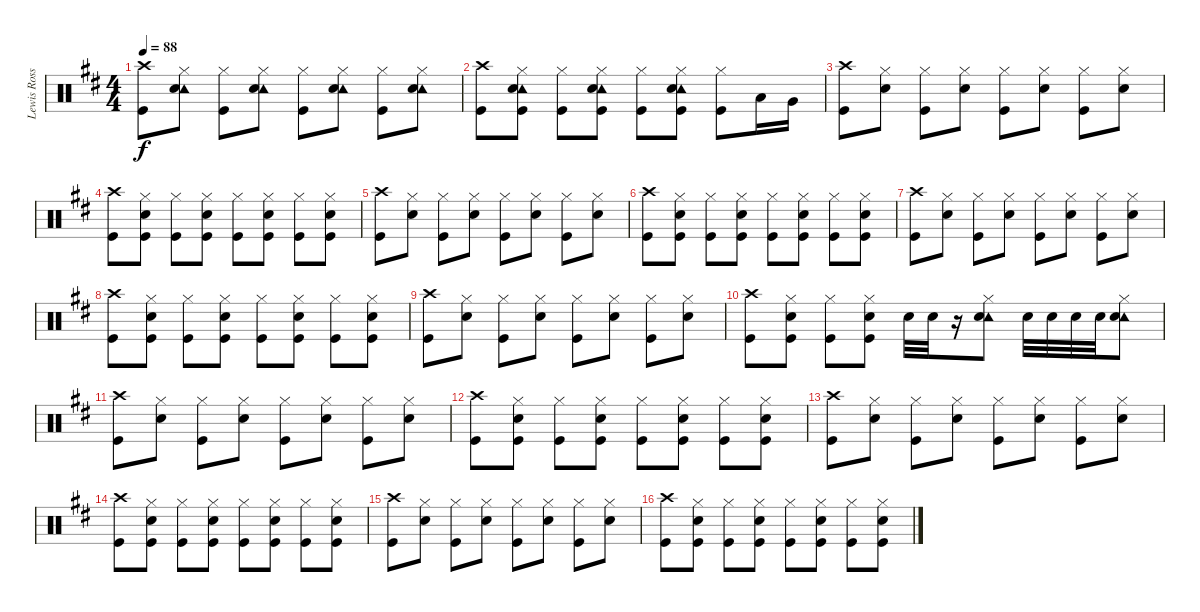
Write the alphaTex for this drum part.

\track ("Lewis Ross Drums" "Lewis Ross") {instrument percussion}
\staff {score}
\articulation defaults
\ts (4 4)
\tempo 88
\clef neutral
\ks d
("Crash high (hit)" "Kick (hit)").8{dy f} ("Hi-Hat (closed)" "Tambourine (hit)" "Snare (hit) 2").8 ("Hi-Hat (closed)" "Kick (hit)").8 ("Hi-Hat (closed)" "Tambourine (hit)" "Snare (hit) 2").8 ("Hi-Hat (closed)" "Kick (hit)").8 ("Hi-Hat (closed)" "Tambourine (hit)" "Snare (hit) 2").8 ("Hi-Hat (closed)" "Kick (hit)").8 ("Hi-Hat (closed)" "Tambourine (hit)" "Snare (hit) 2").8 |
("Crash high (hit)" "Kick (hit)").8 ("Hi-Hat (closed)" "Tambourine (hit)" "Snare (hit) 2" "Kick (hit)").8 ("Hi-Hat (closed)" "Kick (hit)").8 ("Hi-Hat (closed)" "Tambourine (hit)" "Snare (hit) 2" "Kick (hit)").8 ("Hi-Hat (closed)" "Kick (hit)").8 ("Hi-Hat (closed)" "Tambourine (hit)" "Snare (hit) 2" "Kick (hit)").8 ("Hi-Hat (closed)" "Kick (hit)").8 "Low Tom (hit)".16 "Very Low Tom (hit)".16 |
("Crash high (hit)" "Kick (hit)").8 ("Hi-Hat (closed)" "Snare (hit) 2").8 ("Hi-Hat (closed)" "Kick (hit)").8 ("Hi-Hat (closed)" "Snare (hit) 2").8 ("Hi-Hat (closed)" "Kick (hit)").8 ("Hi-Hat (closed)" "Snare (hit) 2").8 ("Hi-Hat (closed)" "Kick (hit)").8 ("Hi-Hat (closed)" "Snare (hit) 2").8 |
("Crash high (hit)" "Kick (hit)").8 ("Hi-Hat (closed)" "Snare (hit) 2" "Kick (hit)").8 ("Hi-Hat (closed)" "Kick (hit)").8 ("Hi-Hat (closed)" "Snare (hit) 2" "Kick (hit)").8 ("Hi-Hat (closed)" "Kick (hit)").8 ("Hi-Hat (closed)" "Snare (hit) 2" "Kick (hit)").8 ("Hi-Hat (closed)" "Kick (hit)").8 ("Hi-Hat (closed)" "Snare (hit) 2" "Kick (hit)").8 |
("Crash high (hit)" "Kick (hit)").8 ("Hi-Hat (closed)" "Snare (hit) 2").8 ("Hi-Hat (closed)" "Kick (hit)").8 ("Hi-Hat (closed)" "Snare (hit) 2").8 ("Hi-Hat (closed)" "Kick (hit)").8 ("Hi-Hat (closed)" "Snare (hit) 2").8 ("Hi-Hat (closed)" "Kick (hit)").8 ("Hi-Hat (closed)" "Snare (hit) 2").8 |
("Crash high (hit)" "Kick (hit)").8 ("Hi-Hat (closed)" "Snare (hit) 2" "Kick (hit)").8 ("Hi-Hat (closed)" "Kick (hit)").8 ("Hi-Hat (closed)" "Snare (hit) 2" "Kick (hit)").8 ("Hi-Hat (closed)" "Kick (hit)").8 ("Hi-Hat (closed)" "Snare (hit) 2" "Kick (hit)").8 ("Hi-Hat (closed)" "Kick (hit)").8 ("Hi-Hat (closed)" "Snare (hit) 2" "Kick (hit)").8 |
("Crash high (hit)" "Kick (hit)").8 ("Hi-Hat (closed)" "Snare (hit) 2").8 ("Hi-Hat (closed)" "Kick (hit)").8 ("Hi-Hat (closed)" "Snare (hit) 2").8 ("Hi-Hat (closed)" "Kick (hit)").8 ("Hi-Hat (closed)" "Snare (hit) 2").8 ("Hi-Hat (closed)" "Kick (hit)").8 ("Hi-Hat (closed)" "Snare (hit) 2").8 |
("Crash high (hit)" "Kick (hit)").8 ("Hi-Hat (closed)" "Snare (hit) 2" "Kick (hit)").8 ("Hi-Hat (closed)" "Kick (hit)").8 ("Hi-Hat (closed)" "Snare (hit) 2" "Kick (hit)").8 ("Hi-Hat (closed)" "Kick (hit)").8 ("Hi-Hat (closed)" "Snare (hit) 2" "Kick (hit)").8 ("Hi-Hat (closed)" "Kick (hit)").8 ("Hi-Hat (closed)" "Snare (hit) 2" "Kick (hit)").8 |
("Crash high (hit)" "Kick (hit)").8 ("Hi-Hat (closed)" "Snare (hit) 2").8 ("Hi-Hat (closed)" "Kick (hit)").8 ("Hi-Hat (closed)" "Snare (hit) 2").8 ("Hi-Hat (closed)" "Kick (hit)").8 ("Hi-Hat (closed)" "Snare (hit) 2").8 ("Hi-Hat (closed)" "Kick (hit)").8 ("Hi-Hat (closed)" "Snare (hit) 2").8 |
("Crash high (hit)" "Kick (hit)").8 ("Hi-Hat (closed)" "Snare (hit) 2" "Kick (hit)").8 ("Hi-Hat (closed)" "Kick (hit)").8 ("Hi-Hat (closed)" "Snare (hit) 2" "Kick (hit)").8 "Snare (hit) 2".32 "Snare (hit) 2".32 r.16 ("Hi-Hat (closed)" "Tambourine (hit)" "Snare (hit) 2").8 "Snare (hit) 2".32 "Snare (hit) 2".32 "Snare (hit) 2".32 "Snare (hit) 2".32 ("Hi-Hat (closed)" "Tambourine (hit)" "Snare (hit) 2").8 |
("Crash high (hit)" "Kick (hit)").8 ("Hi-Hat (closed)" "Snare (hit) 2").8 ("Hi-Hat (closed)" "Kick (hit)").8 ("Hi-Hat (closed)" "Snare (hit) 2").8 ("Hi-Hat (closed)" "Kick (hit)").8 ("Hi-Hat (closed)" "Snare (hit) 2").8 ("Hi-Hat (closed)" "Kick (hit)").8 ("Hi-Hat (closed)" "Snare (hit) 2").8 |
("Crash high (hit)" "Kick (hit)").8 ("Hi-Hat (closed)" "Snare (hit) 2" "Kick (hit)").8 ("Hi-Hat (closed)" "Kick (hit)").8 ("Hi-Hat (closed)" "Snare (hit) 2" "Kick (hit)").8 ("Hi-Hat (closed)" "Kick (hit)").8 ("Hi-Hat (closed)" "Snare (hit) 2" "Kick (hit)").8 ("Hi-Hat (closed)" "Kick (hit)").8 ("Hi-Hat (closed)" "Snare (hit) 2" "Kick (hit)").8 |
("Crash high (hit)" "Kick (hit)").8 ("Hi-Hat (closed)" "Snare (hit) 2").8 ("Hi-Hat (closed)" "Kick (hit)").8 ("Hi-Hat (closed)" "Snare (hit) 2").8 ("Hi-Hat (closed)" "Kick (hit)").8 ("Hi-Hat (closed)" "Snare (hit) 2").8 ("Hi-Hat (closed)" "Kick (hit)").8 ("Hi-Hat (closed)" "Snare (hit) 2").8 |
("Crash high (hit)" "Kick (hit)").8 ("Hi-Hat (closed)" "Snare (hit) 2" "Kick (hit)").8 ("Hi-Hat (closed)" "Kick (hit)").8 ("Hi-Hat (closed)" "Snare (hit) 2" "Kick (hit)").8 ("Hi-Hat (closed)" "Kick (hit)").8 ("Hi-Hat (closed)" "Snare (hit) 2" "Kick (hit)").8 ("Hi-Hat (closed)" "Kick (hit)").8 ("Hi-Hat (closed)" "Snare (hit) 2" "Kick (hit)").8 |
("Crash high (hit)" "Kick (hit)").8 ("Hi-Hat (closed)" "Snare (hit) 2").8 ("Hi-Hat (closed)" "Kick (hit)").8 ("Hi-Hat (closed)" "Snare (hit) 2").8 ("Hi-Hat (closed)" "Kick (hit)").8 ("Hi-Hat (closed)" "Snare (hit) 2").8 ("Hi-Hat (closed)" "Kick (hit)").8 ("Hi-Hat (closed)" "Snare (hit) 2").8 |
("Crash high (hit)" "Kick (hit)").8 ("Hi-Hat (closed)" "Snare (hit) 2" "Kick (hit)").8 ("Hi-Hat (closed)" "Kick (hit)").8 ("Hi-Hat (closed)" "Snare (hit) 2" "Kick (hit)").8 ("Hi-Hat (closed)" "Kick (hit)").8 ("Hi-Hat (closed)" "Snare (hit) 2" "Kick (hit)").8 ("Hi-Hat (closed)" "Kick (hit)").8 ("Hi-Hat (closed)" "Snare (hit) 2" "Kick (hit)").8
